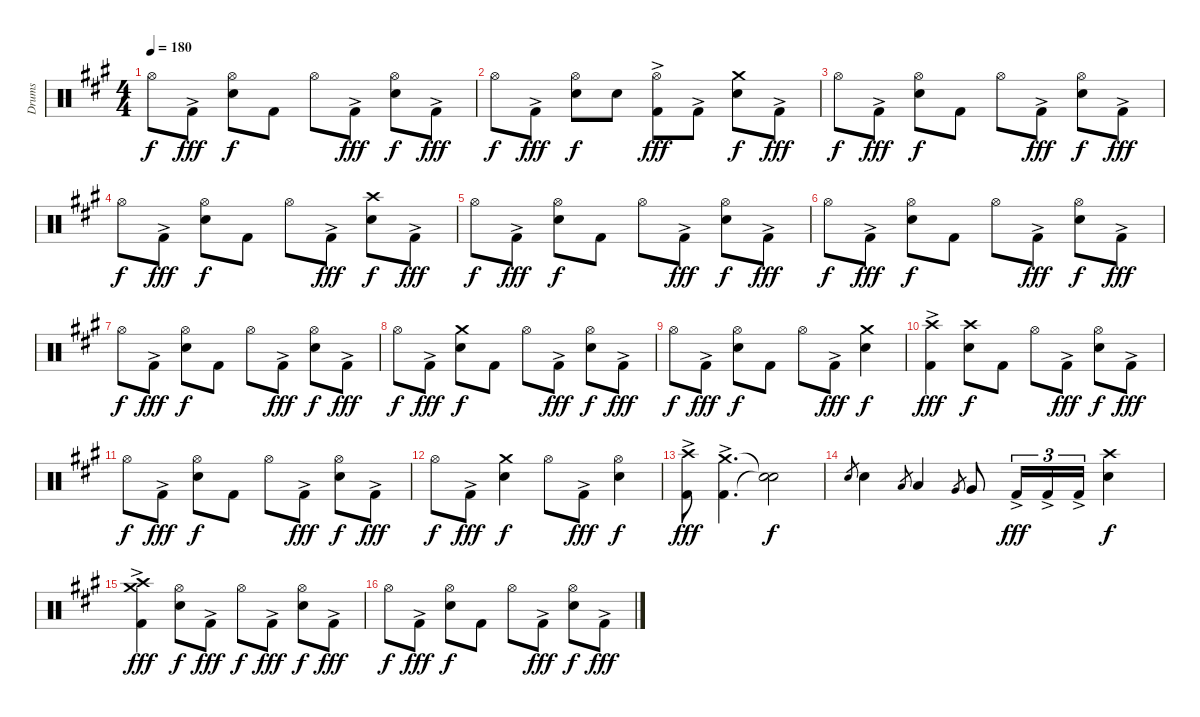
\track ("Drums" "Drums") {instrument percussion}
\staff {score}
\articulation defaults
\ts (4 4)
\tempo 180
\clef neutral
\ks f#minor "Hi-Hat (open)".8{dy f} "Kick (hit) 2"{ac}.8{dy fff}
("Hi-Hat (open)" "Snare (hit) 2").8{dy f} "Kick (hit) 2".8 "Hi-Hat (open)".8 "Kick (hit) 2"{ac}.8{dy fff} ("Hi-Hat (open)" "Snare (hit) 2").8{dy f} "Kick (hit) 2"{ac}.8{dy fff} |
"Hi-Hat (open)".8{dy f} "Kick (hit) 2"{ac}.8{dy fff} ("Hi-Hat (open)" "Snare (hit) 2").8{dy f} "Snare (hit) 2".8 ("Hi-Hat (open)" "Kick (hit) 2"{ac}).8{dy fff} "Kick (hit) 2"{ac}.8 ("Crash medium (hit)" "Snare (hit) 2").8{dy f} "Kick (hit) 2"{ac}.8{dy fff} |
"Hi-Hat (open)".8{dy f} "Kick (hit) 2"{ac}.8{dy fff} ("Hi-Hat (open)" "Snare (hit) 2").8{dy f} "Kick (hit) 2".8 "Hi-Hat (open)".8 "Kick (hit) 2"{ac}.8{dy fff} ("Hi-Hat (open)" "Snare (hit) 2").8{dy f} "Kick (hit) 2"{ac}.8{dy fff} |
"Hi-Hat (open)".8{dy f} "Kick (hit) 2"{ac}.8{dy fff} ("Hi-Hat (open)" "Snare (hit) 2").8{dy f} "Kick (hit) 2".8 "Hi-Hat (open)".8 "Kick (hit) 2"{ac}.8{dy fff} ("Crash high (hit)" "Snare (hit) 2").8{dy f} "Kick (hit) 2"{ac}.8{dy fff} |
"Hi-Hat (open)".8{dy f} "Kick (hit) 2"{ac}.8{dy fff} ("Hi-Hat (open)" "Snare (hit) 2").8{dy f} "Kick (hit) 2".8 "Hi-Hat (open)".8 "Kick (hit) 2"{ac}.8{dy fff} ("Hi-Hat (open)" "Snare (hit) 2").8{dy f} "Kick (hit) 2"{ac}.8{dy fff} |
"Hi-Hat (open)".8{dy f} "Kick (hit) 2"{ac}.8{dy fff} ("Hi-Hat (open)" "Snare (hit) 2").8{dy f} "Kick (hit) 2".8 "Hi-Hat (open)".8 "Kick (hit) 2"{ac}.8{dy fff} ("Hi-Hat (open)" "Snare (hit) 2").8{dy f} "Kick (hit) 2"{ac}.8{dy fff} |
"Hi-Hat (open)".8{dy f} "Kick (hit) 2"{ac}.8{dy fff} ("Hi-Hat (open)" "Snare (hit) 2").8{dy f} "Kick (hit) 2".8 "Hi-Hat (open)".8 "Kick (hit) 2"{ac}.8{dy fff} ("Hi-Hat (open)" "Snare (hit) 2").8{dy f} "Kick (hit) 2"{ac}.8{dy fff} |
"Hi-Hat (open)".8{dy f} "Kick (hit) 2"{ac}.8{dy fff} ("Crash medium (hit)" "Snare (hit) 2").8{dy f} "Kick (hit) 2".8 "Hi-Hat (open)".8 "Kick (hit) 2"{ac}.8{dy fff} ("Hi-Hat (open)" "Snare (hit) 2").8{dy f} "Kick (hit) 2"{ac}.8{dy fff} |
"Hi-Hat (open)".8{dy f} "Kick (hit) 2"{ac}.8{dy fff} ("Hi-Hat (open)" "Snare (hit) 2").8{dy f} "Kick (hit) 2".8 "Hi-Hat (open)".8 "Kick (hit) 2"{ac}.8{dy fff} ("Crash medium (hit)" "Snare (hit) 2").4{dy f} |
("Crash high (hit)" "Kick (hit) 2"{ac}).4{dy fff} ("Crash high (hit)" "Snare (hit) 2").8{dy f} "Kick (hit) 2".8 "Hi-Hat (open)".8 "Kick (hit) 2"{ac}.8{dy fff} ("Hi-Hat (open)" "Snare (hit) 2").8{dy f} "Kick (hit) 2"{ac}.8{dy fff} |
"Hi-Hat (open)".8{dy f} "Kick (hit) 2"{ac}.8{dy fff} ("Hi-Hat (open)" "Snare (hit) 2").8{dy f} "Kick (hit) 2".8 "Hi-Hat (open)".8 "Kick (hit) 2"{ac}.8{dy fff} ("Hi-Hat (open)" "Snare (hit) 2").8{dy f} "Kick (hit) 2"{ac}.8{dy fff} |
"Hi-Hat (open)".8{dy f} "Kick (hit) 2"{ac}.8{dy fff} ("Crash medium (hit)" "Snare (hit) 2").4{dy f} "Hi-Hat (open)".8 "Kick (hit) 2"{ac}.8{dy fff} ("Hi-Hat (open)" "Snare (hit) 2").4{dy f} |
("Crash high (hit)" "Kick (hit) 2"{ac}).8{dy fff} ("Crash medium (hit)" "Kick (hit) 2"{ac}).4{d} ("Snare (hit)"{t} "Snare (hit)"{t}).2{dy f} |
"Snare (hit) 2".8{gr} "Snare (hit) 2".4 "Low Tom (hit)".8{gr} "Low Tom (hit)".4 "Very Low Tom (hit)".8{gr} "Very Low Tom (hit)".8 "Kick (hit) 2"{ac}.16{tu (3 2) dy fff} "Kick (hit) 2"{ac}.16{tu (3 2)} "Kick (hit) 2"{ac}.16{tu (3 2)} ("Crash high (hit)" "Snare (hit) 2").4{dy f} |
("Crash high (hit)" "Crash medium (hit)" "Kick (hit) 2"{ac}).4{dy fff} ("Hi-Hat (open)" "Snare (hit) 2").8{dy f} "Kick (hit) 2"{ac}.8{dy fff} "Hi-Hat (open)".8{dy f} "Kick (hit) 2"{ac}.8{dy fff} ("Hi-Hat (open)" "Snare (hit) 2").8{dy f} "Kick (hit) 2"{ac}.8{dy fff} |
"Hi-Hat (open)".8{dy f} "Kick (hit) 2"{ac}.8{dy fff} ("Hi-Hat (open)" "Snare (hit) 2").8{dy f} "Kick (hit) 2".8 "Hi-Hat (open)".8 "Kick (hit) 2"{ac}.8{dy fff} ("Hi-Hat (open)" "Snare (hit) 2").8{dy f} "Kick (hit) 2"{ac}.8{dy fff}
